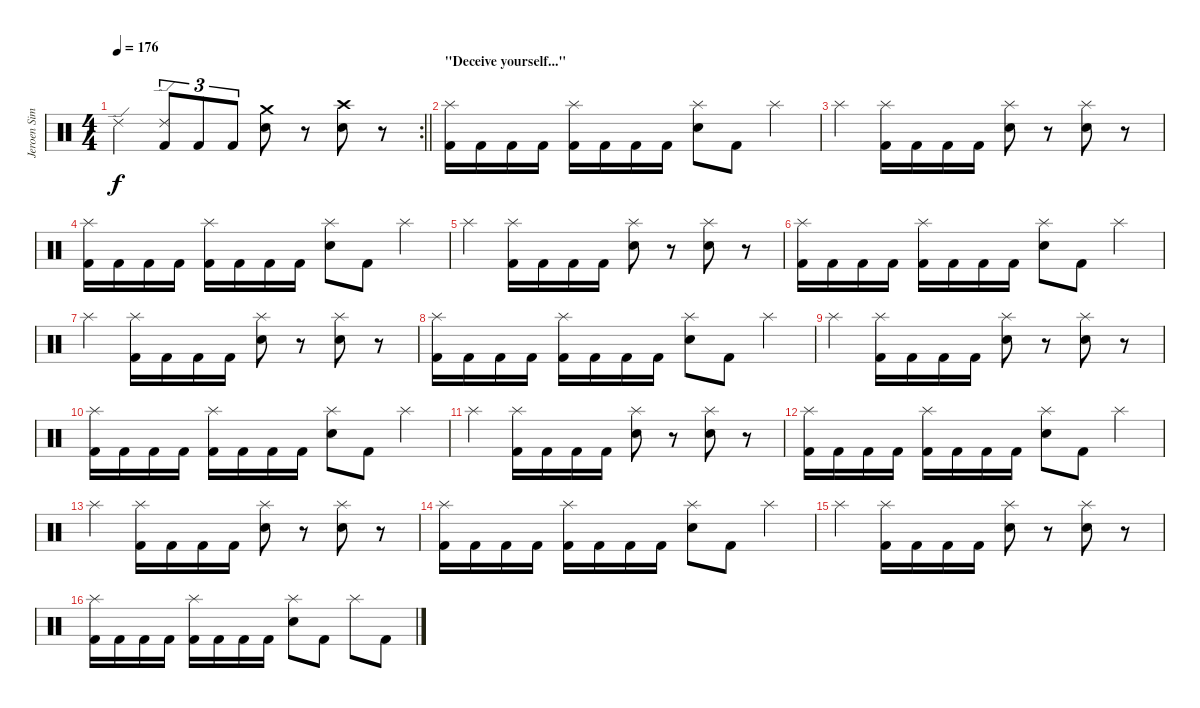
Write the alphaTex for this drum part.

\track ("Jeroen Simons" "Jeroen Sim") {instrument percussion}
\staff {score}
\articulation defaults
\rc 2
\ts (4 4)
\tempo 176
\clef neutral
\barLineRight lightlight
\ks c "Ride (edge) 2".4{dy f}
("Ride (edge) 2" "Kick (hit) 2").8{tu (3 2)} "Kick (hit) 2".8{tu (3 2)} "Kick (hit) 2".8{tu (3 2)} ("Crash medium (hit)" "Electric Snare (hit)").8 r.8 ("Crash high (hit)" "Electric Snare (hit)").8 r.8 |
\section ("" "\"Deceive yourself...\"")
("Splash (hit)" "Kick (hit) 2").16 "Kick (hit) 2".16 "Kick (hit) 2".16 "Kick (hit) 2".16 ("Splash (hit)" "Kick (hit) 2").16 "Kick (hit) 2".16 "Kick (hit) 2".16 "Kick (hit) 2".16 ("Splash (hit)" "Electric Snare (hit)").8 "Kick (hit) 2".8 "Splash (hit)".4 |
"Splash (hit)".4 ("Splash (hit)" "Kick (hit) 2").16 "Kick (hit) 2".16 "Kick (hit) 2".16 "Kick (hit) 2".16 ("Splash (hit)" "Electric Snare (hit)").8 r.8 ("Splash (hit)" "Electric Snare (hit)").8 r.8 |
("Splash (hit)" "Kick (hit) 2").16 "Kick (hit) 2".16 "Kick (hit) 2".16 "Kick (hit) 2".16 ("Splash (hit)" "Kick (hit) 2").16 "Kick (hit) 2".16 "Kick (hit) 2".16 "Kick (hit) 2".16 ("Splash (hit)" "Electric Snare (hit)").8 "Kick (hit) 2".8 "Splash (hit)".4 |
"Splash (hit)".4 ("Splash (hit)" "Kick (hit) 2").16 "Kick (hit) 2".16 "Kick (hit) 2".16 "Kick (hit) 2".16 ("Splash (hit)" "Electric Snare (hit)").8 r.8 ("Splash (hit)" "Electric Snare (hit)").8 r.8 |
("Splash (hit)" "Kick (hit) 2").16 "Kick (hit) 2".16 "Kick (hit) 2".16 "Kick (hit) 2".16 ("Splash (hit)" "Kick (hit) 2").16 "Kick (hit) 2".16 "Kick (hit) 2".16 "Kick (hit) 2".16 ("Splash (hit)" "Electric Snare (hit)").8 "Kick (hit) 2".8 "Splash (hit)".4 |
"Splash (hit)".4 ("Splash (hit)" "Kick (hit) 2").16 "Kick (hit) 2".16 "Kick (hit) 2".16 "Kick (hit) 2".16 ("Splash (hit)" "Electric Snare (hit)").8 r.8 ("Splash (hit)" "Electric Snare (hit)").8 r.8 |
("Splash (hit)" "Kick (hit) 2").16 "Kick (hit) 2".16 "Kick (hit) 2".16 "Kick (hit) 2".16 ("Splash (hit)" "Kick (hit) 2").16 "Kick (hit) 2".16 "Kick (hit) 2".16 "Kick (hit) 2".16 ("Splash (hit)" "Electric Snare (hit)").8 "Kick (hit) 2".8 "Splash (hit)".4 |
"Splash (hit)".4 ("Splash (hit)" "Kick (hit) 2").16 "Kick (hit) 2".16 "Kick (hit) 2".16 "Kick (hit) 2".16 ("Splash (hit)" "Electric Snare (hit)").8 r.8 ("Splash (hit)" "Electric Snare (hit)").8 r.8 |
("Splash (hit)" "Kick (hit) 2").16 "Kick (hit) 2".16 "Kick (hit) 2".16 "Kick (hit) 2".16 ("Splash (hit)" "Kick (hit) 2").16 "Kick (hit) 2".16 "Kick (hit) 2".16 "Kick (hit) 2".16 ("Splash (hit)" "Electric Snare (hit)").8 "Kick (hit) 2".8 "Splash (hit)".4 |
"Splash (hit)".4 ("Splash (hit)" "Kick (hit) 2").16 "Kick (hit) 2".16 "Kick (hit) 2".16 "Kick (hit) 2".16 ("Splash (hit)" "Electric Snare (hit)").8 r.8 ("Splash (hit)" "Electric Snare (hit)").8 r.8 |
("Splash (hit)" "Kick (hit) 2").16 "Kick (hit) 2".16 "Kick (hit) 2".16 "Kick (hit) 2".16 ("Splash (hit)" "Kick (hit) 2").16 "Kick (hit) 2".16 "Kick (hit) 2".16 "Kick (hit) 2".16 ("Splash (hit)" "Electric Snare (hit)").8 "Kick (hit) 2".8 "Splash (hit)".4 |
"Splash (hit)".4 ("Splash (hit)" "Kick (hit) 2").16 "Kick (hit) 2".16 "Kick (hit) 2".16 "Kick (hit) 2".16 ("Splash (hit)" "Electric Snare (hit)").8 r.8 ("Splash (hit)" "Electric Snare (hit)").8 r.8 |
("Splash (hit)" "Kick (hit) 2").16 "Kick (hit) 2".16 "Kick (hit) 2".16 "Kick (hit) 2".16 ("Splash (hit)" "Kick (hit) 2").16 "Kick (hit) 2".16 "Kick (hit) 2".16 "Kick (hit) 2".16 ("Splash (hit)" "Electric Snare (hit)").8 "Kick (hit) 2".8 "Splash (hit)".4 |
"Splash (hit)".4 ("Splash (hit)" "Kick (hit) 2").16 "Kick (hit) 2".16 "Kick (hit) 2".16 "Kick (hit) 2".16 ("Splash (hit)" "Electric Snare (hit)").8 r.8 ("Splash (hit)" "Electric Snare (hit)").8 r.8 |
("Splash (hit)" "Kick (hit) 2").16 "Kick (hit) 2".16 "Kick (hit) 2".16 "Kick (hit) 2".16 ("Splash (hit)" "Kick (hit) 2").16 "Kick (hit) 2".16 "Kick (hit) 2".16 "Kick (hit) 2".16 ("Splash (hit)" "Electric Snare (hit)").8 "Kick (hit) 2".8 "Splash (hit)".8 "Kick (hit) 2".8
